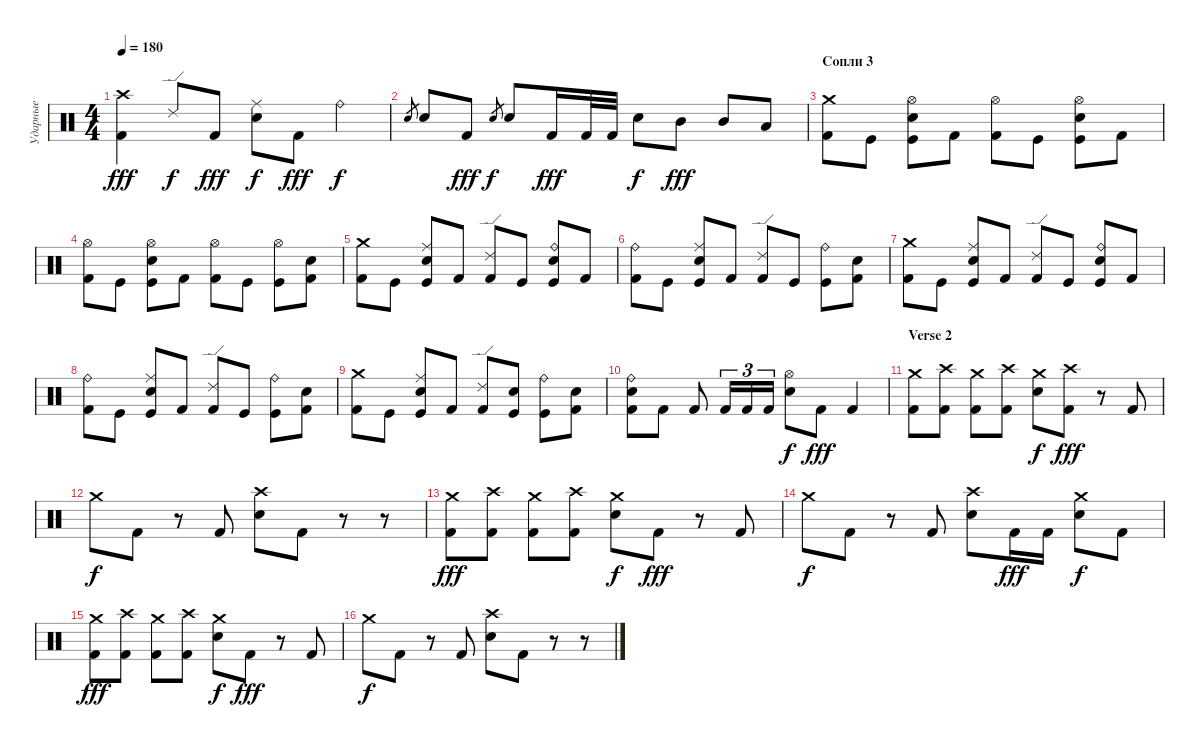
\track ("Ударные" "Ударные") {instrument percussion}
\staff {score}
\articulation defaults
\ts (4 4)
\tempo 180
\clef neutral
\ks c
("Kick (hit) 2" "Crash high (hit)").4{dy fff} "Ride (edge) 2".8{dy f} "Kick (hit) 2".8{dy fff} ("Snare (hit) 2" "Ride (middle)").8{dy f} "Kick (hit) 2".8{dy fff} "Ride (bell)".4{dy f} |
"Snare (hit) 2".8{gr} "Snare (hit) 2".8 "Kick (hit) 2".8{dy fff} "Snare (hit) 2".8{gr dy f} "Snare (hit) 2".8 "Kick (hit) 2".16{dy fff} "Kick (hit) 2".32 "Kick (hit) 2".32 "Snare (hit) 2".8{dy f} "Mid Tom (hit)".8{dy fff} "Mid Tom (hit)".8 "Low Tom (hit)".8 |
\section ("" "Сопли 3")
("Kick (hit) 2" "Crash medium (hit)").8 "Kick (hit)".8 ("Kick (hit)" "Snare (hit) 2" "Hi-Hat (open)").8 "Kick (hit) 2".8 ("Kick (hit) 2" "Hi-Hat (open)").8 "Kick (hit)".8 ("Kick (hit)" "Snare (hit) 2" "Hi-Hat (open)").8 "Kick (hit) 2".8 |
("Kick (hit) 2" "Hi-Hat (open)").8 "Kick (hit)".8 ("Kick (hit)" "Snare (hit) 2" "Hi-Hat (open)").8 "Kick (hit) 2".8 ("Kick (hit) 2" "Hi-Hat (open)").8 "Kick (hit)".8 ("Kick (hit)" "Hi-Hat (open)").8 ("Kick (hit) 2" "Snare (hit) 2").8 |
("Kick (hit) 2" "Crash medium (hit)").8 "Kick (hit)".8 ("Kick (hit)" "Snare (hit) 2" "Ride (middle)").8 "Kick (hit) 2".8 ("Kick (hit) 2" "Ride (edge) 2").8 "Kick (hit)".8 ("Kick (hit)" "Snare (hit) 2" "Ride (bell)").8 "Kick (hit) 2".8 |
("Kick (hit) 2" "Ride (bell)").8 "Kick (hit)".8 ("Kick (hit)" "Snare (hit) 2" "Ride (middle)").8 "Kick (hit) 2".8 ("Kick (hit) 2" "Ride (edge) 2").8 "Kick (hit)".8 ("Kick (hit)" "Ride (bell)").8 ("Kick (hit) 2" "Snare (hit) 2").8 |
("Kick (hit) 2" "Crash medium (hit)").8 "Kick (hit)".8 ("Kick (hit)" "Snare (hit) 2" "Ride (middle)").8 "Kick (hit) 2".8 ("Kick (hit) 2" "Ride (edge) 2").8 "Kick (hit)".8 ("Kick (hit)" "Snare (hit) 2" "Ride (bell)").8 "Kick (hit) 2".8 |
("Kick (hit) 2" "Ride (bell)").8 "Kick (hit)".8 ("Kick (hit)" "Snare (hit) 2" "Ride (middle)").8 "Kick (hit) 2".8 ("Kick (hit) 2" "Ride (edge) 2").8 "Kick (hit)".8 ("Kick (hit)" "Ride (bell)").8 ("Kick (hit) 2" "Snare (hit) 2").8 |
("Kick (hit) 2" "Crash medium (hit)").8 "Kick (hit)".8 ("Kick (hit)" "Snare (hit) 2" "Ride (middle)").8 "Kick (hit) 2".8 ("Kick (hit) 2" "Ride (edge) 2").8 ("Kick (hit)" "Snare (hit) 2").8 ("Kick (hit)" "Ride (bell)").8 ("Kick (hit) 2" "Snare (hit) 2").8 |
("Kick (hit) 2" "Snare (hit) 2" "Ride (bell)").8 "Kick (hit) 2".8 "Kick (hit) 2".8 "Kick (hit) 2".16{tu (3 2)} "Kick (hit) 2".16{tu (3 2)} "Kick (hit) 2".16{tu (3 2)} ("Snare (hit) 2" "Hi-Hat (open)").8{dy f} "Kick (hit) 2".8{dy fff} "Kick (hit) 2".4 |
\section ("" "Verse 2")
("Kick (hit) 2" "Crash medium (hit)").8 ("Kick (hit) 2" "Crash high (hit)").8 ("Kick (hit) 2" "Crash medium (hit)").8 ("Kick (hit) 2" "Crash high (hit)").8 ("Snare (hit) 2" "Crash medium (hit)").8{dy f} ("Kick (hit) 2" "Crash high (hit)").8{dy fff} r.8 "Kick (hit) 2".8 |
"Crash medium (hit)".8{dy f} "Kick (hit) 2".8 r.8 "Kick (hit) 2".8 ("Snare (hit) 2" "Crash high (hit)").8 "Kick (hit) 2".8 r.8 r.8 |
("Kick (hit) 2" "Crash medium (hit)").8{dy fff} ("Kick (hit) 2" "Crash high (hit)").8 ("Kick (hit) 2" "Crash medium (hit)").8 ("Kick (hit) 2" "Crash high (hit)").8 ("Snare (hit) 2" "Crash medium (hit)").8{dy f} "Kick (hit) 2".8{dy fff} r.8 "Kick (hit) 2".8 |
"Crash medium (hit)".8{dy f} "Kick (hit) 2".8 r.8 "Kick (hit) 2".8 ("Snare (hit) 2" "Crash high (hit)").8 "Kick (hit) 2".16{dy fff} "Kick (hit) 2".16 ("Snare (hit) 2" "Crash medium (hit)").8{dy f} "Kick (hit) 2".8 |
("Kick (hit) 2" "Crash medium (hit)").8{dy fff} ("Kick (hit) 2" "Crash high (hit)").8 ("Kick (hit) 2" "Crash medium (hit)").8 ("Kick (hit) 2" "Crash high (hit)").8 ("Snare (hit) 2" "Crash medium (hit)").8{dy f} "Kick (hit) 2".8{dy fff} r.8 "Kick (hit) 2".8 |
"Crash medium (hit)".8{dy f} "Kick (hit) 2".8 r.8 "Kick (hit) 2".8 ("Snare (hit) 2" "Crash high (hit)").8 "Kick (hit) 2".8 r.8 r.8
